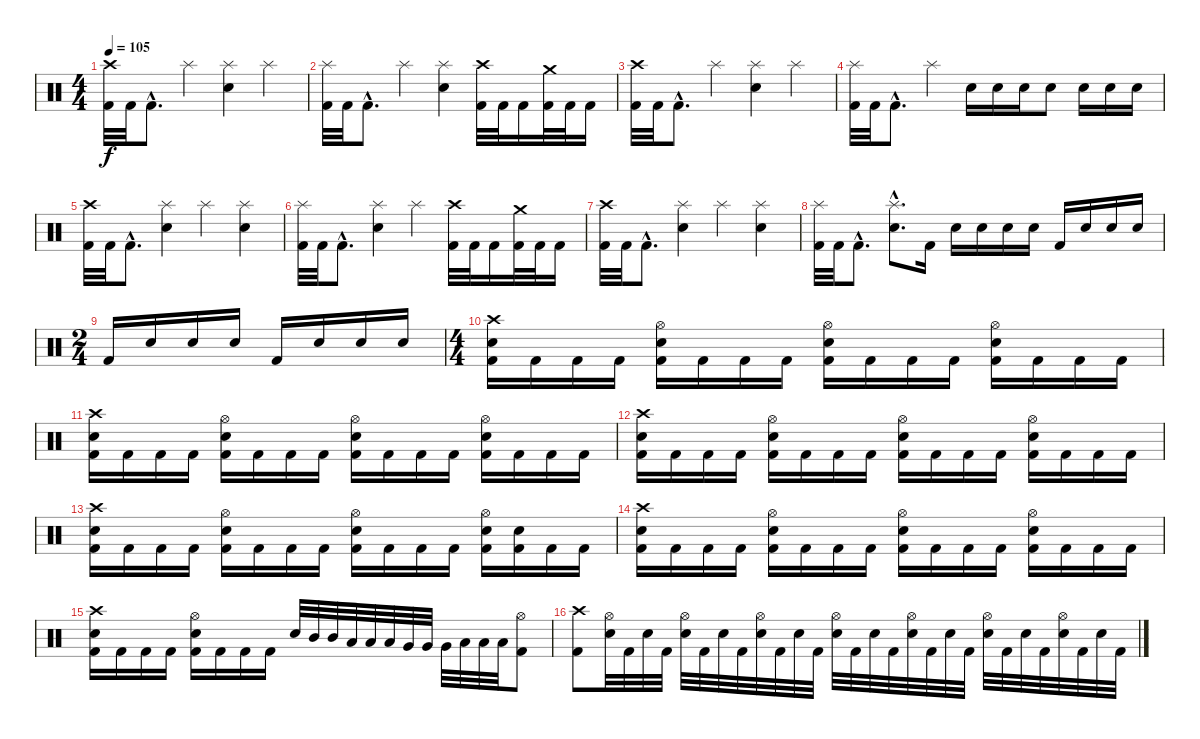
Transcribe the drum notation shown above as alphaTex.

\track "" {instrument percussion}
\staff {score}
\articulation defaults
\ts (4 4)
\section ("" "")
\tempo 105
\clef neutral
\ks c
("Crash high (hit)" "Kick (hit) 2").32{dy f} "Kick (hit) 2".32 "Kick (hit) 2"{hac}.8{d} "Splash (hit)".4 ("Splash (hit)" "Electric Snare (hit)").4 "Splash (hit)".4 |
("Splash (hit)" "Kick (hit) 2").32 "Kick (hit) 2".32 "Kick (hit) 2"{hac}.8{d} "Splash (hit)".4 ("Splash (hit)" "Electric Snare (hit)").4 ("Crash high (hit)" "Kick (hit) 2").32 "Kick (hit) 2".32 "Kick (hit) 2".16 ("Crash medium (hit)" "Kick (hit) 2").32 "Kick (hit) 2".32 "Kick (hit) 2".16 |
("Crash high (hit)" "Kick (hit) 2").32 "Kick (hit) 2".32 "Kick (hit) 2"{hac}.8{d} "Splash (hit)".4 ("Splash (hit)" "Electric Snare (hit)").4 "Splash (hit)".4 |
("Splash (hit)" "Kick (hit) 2").32 "Kick (hit) 2".32 "Kick (hit) 2"{hac}.8{d} "Splash (hit)".4 "Electric Snare (hit)".16 "Electric Snare (hit)".16 "Electric Snare (hit)".16 "Electric Snare (hit)".8 "Electric Snare (hit)".16 "Electric Snare (hit)".16 "Electric Snare (hit)".16 |
("Crash high (hit)" "Kick (hit) 2").32 "Kick (hit) 2".32 "Kick (hit) 2"{hac}.8{d} ("Splash (hit)" "Electric Snare (hit)").4 "Splash (hit)".4 ("Splash (hit)" "Electric Snare (hit)").4 |
("Splash (hit)" "Kick (hit) 2").32 "Kick (hit) 2".32 "Kick (hit) 2"{hac}.8{d} ("Splash (hit)" "Electric Snare (hit)").4 "Splash (hit)".4 ("Crash high (hit)" "Kick (hit) 2").32 "Kick (hit) 2".32 "Kick (hit) 2".16 ("Crash medium (hit)" "Kick (hit) 2").32 "Kick (hit) 2".32 "Kick (hit) 2".16 |
("Crash high (hit)" "Kick (hit) 2").32 "Kick (hit) 2".32 "Kick (hit) 2"{hac}.8{d} ("Splash (hit)" "Electric Snare (hit)").4 "Splash (hit)".4 ("Splash (hit)" "Electric Snare (hit)").4 |
("Splash (hit)" "Kick (hit) 2").32 "Kick (hit) 2".32 "Kick (hit) 2"{hac}.8{d} ("Splash (hit)"{hac} "Electric Snare (hit)"{hac}).8{d} "Kick (hit) 2".16 "Electric Snare (hit)".16 "Electric Snare (hit)".16 "Electric Snare (hit)".16 "Electric Snare (hit)".16 "Kick (hit) 2".16 "Electric Snare (hit)".16 "Electric Snare (hit)".16 "Electric Snare (hit)".16 |
\ts (2 4)
"Kick (hit) 2".16 "Electric Snare (hit)".16 "Electric Snare (hit)".16 "Electric Snare (hit)".16 "Kick (hit) 2".16 "Electric Snare (hit)".16 "Electric Snare (hit)".16 "Electric Snare (hit)".16 |
\ts (4 4)
\section ("" "")
("Crash high (hit)" "Electric Snare (hit)" "Kick (hit) 2").16 "Kick (hit) 2".16 "Kick (hit) 2".16 "Kick (hit) 2".16 ("Hi-Hat (open)" "Electric Snare (hit)" "Kick (hit) 2").16 "Kick (hit) 2".16 "Kick (hit) 2".16 "Kick (hit) 2".16 ("Hi-Hat (open)" "Electric Snare (hit)" "Kick (hit) 2").16 "Kick (hit) 2".16 "Kick (hit) 2".16 "Kick (hit) 2".16 ("Hi-Hat (open)" "Electric Snare (hit)" "Kick (hit) 2").16 "Kick (hit) 2".16 "Kick (hit) 2".16 "Kick (hit) 2".16 |
("Crash high (hit)" "Electric Snare (hit)" "Kick (hit) 2").16 "Kick (hit) 2".16 "Kick (hit) 2".16 "Kick (hit) 2".16 ("Hi-Hat (open)" "Electric Snare (hit)" "Kick (hit) 2").16 "Kick (hit) 2".16 "Kick (hit) 2".16 "Kick (hit) 2".16 ("Hi-Hat (open)" "Electric Snare (hit)" "Kick (hit) 2").16 "Kick (hit) 2".16 "Kick (hit) 2".16 "Kick (hit) 2".16 ("Hi-Hat (open)" "Electric Snare (hit)" "Kick (hit) 2").16 "Kick (hit) 2".16 "Kick (hit) 2".16 "Kick (hit) 2".16 |
("Crash high (hit)" "Electric Snare (hit)" "Kick (hit) 2").16 "Kick (hit) 2".16 "Kick (hit) 2".16 "Kick (hit) 2".16 ("Hi-Hat (open)" "Electric Snare (hit)" "Kick (hit) 2").16 "Kick (hit) 2".16 "Kick (hit) 2".16 "Kick (hit) 2".16 ("Hi-Hat (open)" "Electric Snare (hit)" "Kick (hit) 2").16 "Kick (hit) 2".16 "Kick (hit) 2".16 "Kick (hit) 2".16 ("Hi-Hat (open)" "Electric Snare (hit)" "Kick (hit) 2").16 "Kick (hit) 2".16 "Kick (hit) 2".16 "Kick (hit) 2".16 |
("Crash high (hit)" "Electric Snare (hit)" "Kick (hit) 2").16 "Kick (hit) 2".16 "Kick (hit) 2".16 "Kick (hit) 2".16 ("Hi-Hat (open)" "Electric Snare (hit)" "Kick (hit) 2").16 "Kick (hit) 2".16 "Kick (hit) 2".16 "Kick (hit) 2".16 ("Hi-Hat (open)" "Electric Snare (hit)" "Kick (hit) 2").16 "Kick (hit) 2".16 "Kick (hit) 2".16 "Kick (hit) 2".16 ("Hi-Hat (open)" "Electric Snare (hit)" "Kick (hit) 2").16 ("Electric Snare (hit)" "Kick (hit) 2").16 "Kick (hit) 2".16 "Kick (hit) 2".16 |
("Crash high (hit)" "Electric Snare (hit)" "Kick (hit) 2").16 "Kick (hit) 2".16 "Kick (hit) 2".16 "Kick (hit) 2".16 ("Hi-Hat (open)" "Electric Snare (hit)" "Kick (hit) 2").16 "Kick (hit) 2".16 "Kick (hit) 2".16 "Kick (hit) 2".16 ("Hi-Hat (open)" "Electric Snare (hit)" "Kick (hit) 2").16 "Kick (hit) 2".16 "Kick (hit) 2".16 "Kick (hit) 2".16 ("Hi-Hat (open)" "Electric Snare (hit)" "Kick (hit) 2").16 "Kick (hit) 2".16 "Kick (hit) 2".16 "Kick (hit) 2".16 |
("Crash high (hit)" "Electric Snare (hit)" "Kick (hit) 2").16 "Kick (hit) 2".16 "Kick (hit) 2".16 "Kick (hit) 2".16 ("Hi-Hat (open)" "Electric Snare (hit)" "Kick (hit) 2").16 "Kick (hit) 2".16 "Kick (hit) 2".16 "Kick (hit) 2".16 "Electric Snare (hit)".32 "Mid Tom (hit)".32 "Mid Tom (hit)".32 "Low Tom (hit)".32 "Low Tom (hit)".32 "Low Tom (hit)".32 "Very Low Tom (hit)".32 "Very Low Tom (hit)".32 "Very Low Tom (hit)".32 "Low Floor Tom (hit)".32 "Low Floor Tom (hit)".32 "Low Floor Tom (hit)".32 ("Hi-Hat (open)" "Kick (hit) 2").8 |
\section ("" "")
("Crash high (hit)" "Kick (hit) 2").8 ("Hi-Hat (open)" "Electric Snare (hit)").32 "Kick (hit) 2".32 "Electric Snare (hit)".32 "Kick (hit) 2".32 ("Hi-Hat (open)" "Electric Snare (hit)").32 "Kick (hit) 2".32 "Electric Snare (hit)".32 "Kick (hit) 2".32 ("Hi-Hat (open)" "Electric Snare (hit)").32 "Kick (hit) 2".32 "Electric Snare (hit)".32 "Kick (hit) 2".32 ("Hi-Hat (open)" "Electric Snare (hit)").32 "Kick (hit) 2".32 "Electric Snare (hit)".32 "Kick (hit) 2".32 ("Hi-Hat (open)" "Electric Snare (hit)").32 "Kick (hit) 2".32 "Electric Snare (hit)".32 "Kick (hit) 2".32 ("Hi-Hat (open)" "Electric Snare (hit)").32 "Kick (hit) 2".32 "Electric Snare (hit)".32 "Kick (hit) 2".32 ("Hi-Hat (open)" "Electric Snare (hit)").32 "Kick (hit) 2".32 "Electric Snare (hit)".32 "Kick (hit) 2".32
